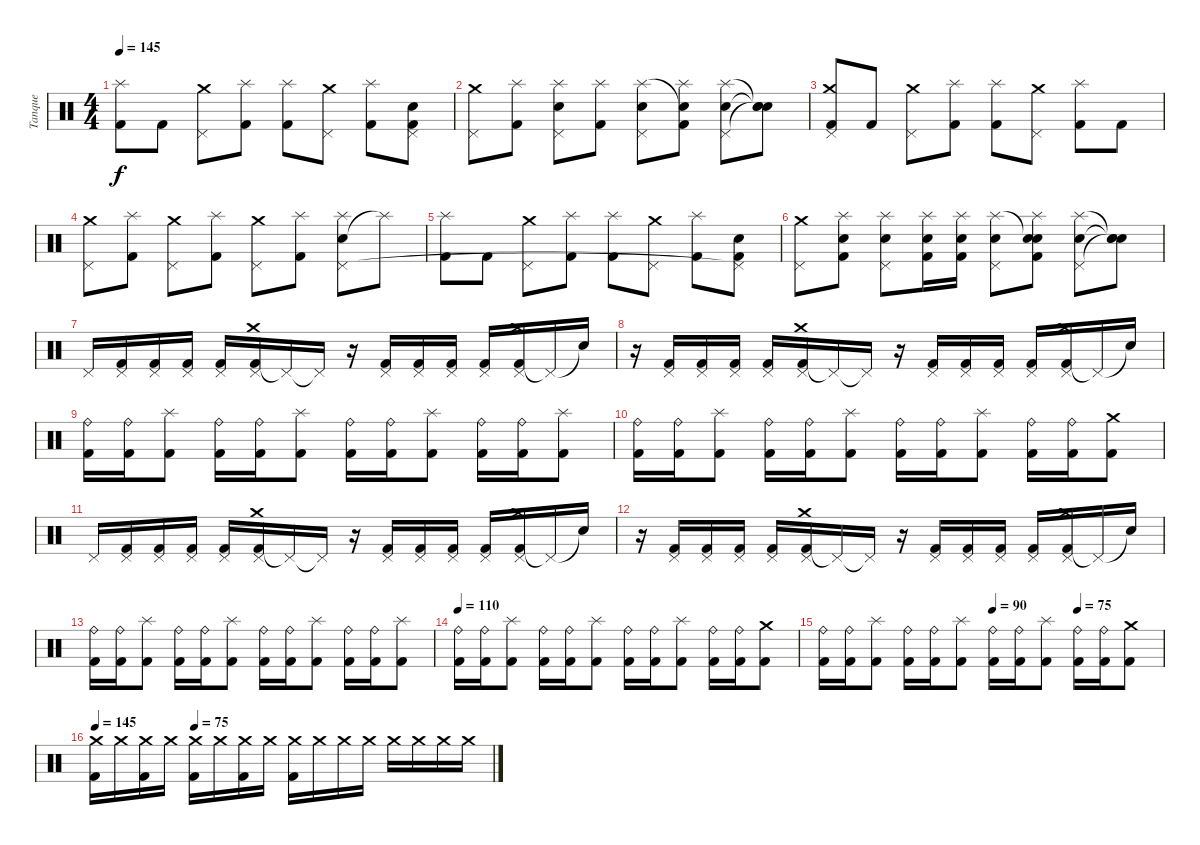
\track ("Tanque" "Tanque") {instrument percussion}
\staff {score}
\articulation defaults
\ts (4 4)
\tempo 145
\clef neutral
\ks c
("Kick (hit) 2" "Splash (hit)").8{dy f} "Kick (hit) 2".8 ("Crash medium (hit)" "Pedal Hi-Hat (hit)").8 ("Kick (hit) 2" "Splash (hit)").8 ("Kick (hit) 2" "Splash (hit)").8 ("Crash medium (hit)" "Pedal Hi-Hat (hit)").8 ("Kick (hit) 2" "Splash (hit)").8 ("Kick (hit) 2" "Snare (hit) 2" "Pedal Hi-Hat (hit)"{t}).8 |
("Crash medium (hit)" "Pedal Hi-Hat (hit)").8 ("Kick (hit) 2" "Splash (hit)").8 ("Snare (hit) 2" "Splash (hit)" "Pedal Hi-Hat (hit)").8 ("Kick (hit) 2" "Splash (hit)").8 ("Snare (hit) 2" "Splash (hit)" "Pedal Hi-Hat (hit)").8 ("Kick (hit) 2" "Snare (hit)"{t} "Splash (hit)").8 ("Snare (hit) 2" "Splash (hit)" "Pedal Hi-Hat (hit)").8 ("Snare (hit)"{t} "Snare (hit)"{t} "Snare (hit)"{t}).8 |
("Kick (hit) 2" "Crash medium (hit)" "Pedal Hi-Hat (hit)").8 "Kick (hit) 2".8 ("Crash medium (hit)" "Pedal Hi-Hat (hit)").8 ("Kick (hit) 2" "Splash (hit)").8 ("Kick (hit) 2" "Splash (hit)").8 ("Crash medium (hit)" "Pedal Hi-Hat (hit)").8 ("Kick (hit) 2" "Splash (hit)").8 "Kick (hit) 2".8 |
("Crash medium (hit)" "Pedal Hi-Hat (hit)").8 ("Kick (hit) 2" "Splash (hit)").8 ("Crash medium (hit)" "Pedal Hi-Hat (hit)").8 ("Kick (hit) 2" "Splash (hit)").8 ("Crash medium (hit)" "Pedal Hi-Hat (hit)").8 ("Kick (hit) 2" "Splash (hit)").8 ("Snare (hit) 2" "Splash (hit)" "Pedal Hi-Hat (hit)").8 "Splash (hit)"{t}.8 |
("Kick (hit) 2" "Splash (hit)").8 "Kick (hit) 2".8 ("Crash medium (hit)" "Pedal Hi-Hat (hit)").8 ("Kick (hit) 2" "Splash (hit)").8 ("Kick (hit) 2" "Splash (hit)").8 ("Crash medium (hit)" "Pedal Hi-Hat (hit)").8 ("Kick (hit) 2" "Splash (hit)").8 ("Kick (hit) 2" "Snare (hit) 2" "Pedal Hi-Hat (hit)"{t}).8 |
("Crash medium (hit)" "Pedal Hi-Hat (hit)").8 ("Kick (hit) 2" "Electric Snare (hit)" "Splash (hit)").8 ("Snare (hit) 2" "Splash (hit)" "Pedal Hi-Hat (hit)").8 ("Kick (hit) 2" "Electric Snare (hit)" "Splash (hit)").16 ("Kick (hit) 2" "Electric Snare (hit)" "Splash (hit)").16 ("Snare (hit) 2" "Splash (hit)" "Pedal Hi-Hat (hit)").8 ("Kick (hit) 2" "Snare (hit)"{t} "Electric Snare (hit)" "Splash (hit)").8 ("Snare (hit) 2" "Splash (hit)" "Pedal Hi-Hat (hit)").8 ("Snare (hit)"{t} "Snare (hit)"{t} "Snare (hit)"{t}).8 |
"Pedal Hi-Hat (hit)".16 ("Kick (hit) 2" "Pedal Hi-Hat (hit)").16 ("Kick (hit) 2" "Pedal Hi-Hat (hit)").16 ("Kick (hit) 2" "Pedal Hi-Hat (hit)").16 ("Kick (hit) 2" "Pedal Hi-Hat (hit)").16 ("Kick (hit) 2" "Pedal Hi-Hat (hit)" "Crash medium (hit)").16 "Pedal Hi-Hat (hit)"{t}.16 "Pedal Hi-Hat (hit)"{t}.16 r.16 ("Kick (hit) 2" "Pedal Hi-Hat (hit)").16 ("Kick (hit) 2" "Pedal Hi-Hat (hit)").16 ("Kick (hit) 2" "Pedal Hi-Hat (hit)").16 ("Kick (hit) 2" "Pedal Hi-Hat (hit)").16 ("Kick (hit) 2" "Pedal Hi-Hat (hit)" "Crash medium (hit)").16 "Pedal Hi-Hat (hit)"{t}.16 "Snare (hit)"{t}.16 |
r.16 ("Kick (hit) 2" "Pedal Hi-Hat (hit)").16 ("Kick (hit) 2" "Pedal Hi-Hat (hit)").16 ("Kick (hit) 2" "Pedal Hi-Hat (hit)").16 ("Kick (hit) 2" "Pedal Hi-Hat (hit)").16 ("Kick (hit) 2" "Pedal Hi-Hat (hit)" "Crash medium (hit)").16 "Pedal Hi-Hat (hit)"{t}.16 "Pedal Hi-Hat (hit)"{t}.16 r.16 ("Kick (hit) 2" "Pedal Hi-Hat (hit)").16 ("Kick (hit) 2" "Pedal Hi-Hat (hit)").16 ("Kick (hit) 2" "Pedal Hi-Hat (hit)").16 ("Kick (hit) 2" "Pedal Hi-Hat (hit)").16 ("Kick (hit) 2" "Pedal Hi-Hat (hit)" "Crash medium (hit)").16 "Pedal Hi-Hat (hit)"{t}.16 "Snare (hit)"{t}.16 |
("Kick (hit) 2" "Ride (bell)").16 ("Kick (hit) 2" "Ride (bell)").16 ("Kick (hit) 2" "Splash (hit)").8 ("Kick (hit) 2" "Ride (bell)").16 ("Kick (hit) 2" "Ride (bell)").16 ("Kick (hit) 2" "Splash (hit)").8 ("Kick (hit) 2" "Ride (bell)").16 ("Kick (hit) 2" "Ride (bell)").16 ("Kick (hit) 2" "Splash (hit)").8 ("Kick (hit) 2" "Ride (bell)").16 ("Kick (hit) 2" "Ride (bell)").16 ("Kick (hit) 2" "Splash (hit)").8 |
("Kick (hit) 2" "Ride (bell)").16 ("Kick (hit) 2" "Ride (bell)").16 ("Kick (hit) 2" "Splash (hit)").8 ("Kick (hit) 2" "Ride (bell)").16 ("Kick (hit) 2" "Ride (bell)").16 ("Kick (hit) 2" "Splash (hit)").8 ("Kick (hit) 2" "Ride (bell)").16 ("Kick (hit) 2" "Ride (bell)").16 ("Kick (hit) 2" "Splash (hit)").8 ("Kick (hit) 2" "Ride (bell)").16 ("Kick (hit) 2" "Ride (bell)").16 ("Kick (hit) 2" "Crash medium (hit)").8 |
"Pedal Hi-Hat (hit)".16 ("Kick (hit) 2" "Pedal Hi-Hat (hit)").16 ("Kick (hit) 2" "Pedal Hi-Hat (hit)").16 ("Kick (hit) 2" "Pedal Hi-Hat (hit)").16 ("Kick (hit) 2" "Pedal Hi-Hat (hit)").16 ("Kick (hit) 2" "Pedal Hi-Hat (hit)" "Crash medium (hit)").16 "Pedal Hi-Hat (hit)"{t}.16 "Pedal Hi-Hat (hit)"{t}.16 r.16 ("Kick (hit) 2" "Pedal Hi-Hat (hit)").16 ("Kick (hit) 2" "Pedal Hi-Hat (hit)").16 ("Kick (hit) 2" "Pedal Hi-Hat (hit)").16 ("Kick (hit) 2" "Pedal Hi-Hat (hit)").16 ("Kick (hit) 2" "Pedal Hi-Hat (hit)" "Crash medium (hit)").16 "Pedal Hi-Hat (hit)"{t}.16 "Snare (hit)"{t}.16 |
r.16 ("Kick (hit) 2" "Pedal Hi-Hat (hit)").16 ("Kick (hit) 2" "Pedal Hi-Hat (hit)").16 ("Kick (hit) 2" "Pedal Hi-Hat (hit)").16 ("Kick (hit) 2" "Pedal Hi-Hat (hit)").16 ("Kick (hit) 2" "Pedal Hi-Hat (hit)" "Crash medium (hit)").16 "Pedal Hi-Hat (hit)"{t}.16 "Pedal Hi-Hat (hit)"{t}.16 r.16 ("Kick (hit) 2" "Pedal Hi-Hat (hit)").16 ("Kick (hit) 2" "Pedal Hi-Hat (hit)").16 ("Kick (hit) 2" "Pedal Hi-Hat (hit)").16 ("Kick (hit) 2" "Pedal Hi-Hat (hit)").16 ("Kick (hit) 2" "Pedal Hi-Hat (hit)" "Crash medium (hit)").16 "Pedal Hi-Hat (hit)"{t}.16 "Snare (hit)"{t}.16 |
("Kick (hit) 2" "Ride (bell)").16 ("Kick (hit) 2" "Ride (bell)").16 ("Kick (hit) 2" "Splash (hit)").8 ("Kick (hit) 2" "Ride (bell)").16 ("Kick (hit) 2" "Ride (bell)").16 ("Kick (hit) 2" "Splash (hit)").8 ("Kick (hit) 2" "Ride (bell)").16 ("Kick (hit) 2" "Ride (bell)").16 ("Kick (hit) 2" "Splash (hit)").8 ("Kick (hit) 2" "Ride (bell)").16 ("Kick (hit) 2" "Ride (bell)").16 ("Kick (hit) 2" "Splash (hit)").8 |
\tempo 110
("Kick (hit) 2" "Ride (bell)").16 ("Kick (hit) 2" "Ride (bell)").16 ("Kick (hit) 2" "Splash (hit)").8 ("Kick (hit) 2" "Ride (bell)").16 ("Kick (hit) 2" "Ride (bell)").16 ("Kick (hit) 2" "Splash (hit)").8 ("Kick (hit) 2" "Ride (bell)").16 ("Kick (hit) 2" "Ride (bell)").16 ("Kick (hit) 2" "Splash (hit)").8 ("Kick (hit) 2" "Ride (bell)").16 ("Kick (hit) 2" "Ride (bell)").16 ("Kick (hit) 2" "Crash medium (hit)").8 |
\tempo (90 0.5)
\tempo (75 0.75)
("Kick (hit) 2" "Ride (bell)").16 ("Kick (hit) 2" "Ride (bell)").16 ("Kick (hit) 2" "Splash (hit)").8 ("Kick (hit) 2" "Ride (bell)").16 ("Kick (hit) 2" "Ride (bell)").16 ("Kick (hit) 2" "Splash (hit)").8 ("Kick (hit) 2" "Ride (bell)").16 ("Kick (hit) 2" "Ride (bell)").16 ("Kick (hit) 2" "Splash (hit)").8 ("Kick (hit) 2" "Ride (bell)").16 ("Kick (hit) 2" "Ride (bell)").16 ("Kick (hit) 2" "Crash medium (hit)").8 |
\tempo 145
\tempo (75 0.25)
("Kick (hit) 2" "Crash medium (hit)").16 "Crash medium (hit)".16 ("Kick (hit) 2" "Crash medium (hit)").16 "Crash medium (hit)".16 ("Kick (hit) 2" "Crash medium (hit)").16 "Crash medium (hit)".16 ("Kick (hit) 2" "Crash medium (hit)").16 "Crash medium (hit)".16 ("Kick (hit) 2" "Crash medium (hit)").16 "Crash medium (hit)".16 "Crash medium (hit)".16 "Crash medium (hit)".16 "Crash medium (hit)".16 "Crash medium (hit)".16 "Crash medium (hit)".16 "Crash medium (hit)".16
